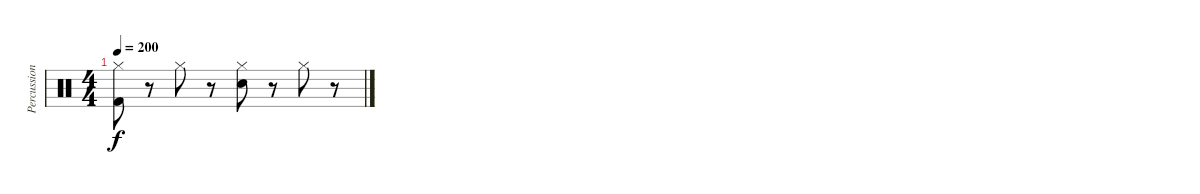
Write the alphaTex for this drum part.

\track ("Percussion" "Percussion") {instrument percussion}
\staff {score}
\articulation defaults
\ts (4 4)
\tempo 200
\clef neutral
\ks c
("Hi-Hat (closed)" "Kick (hit) 2").8{dy f} r.8 "Hi-Hat (closed)".8 r.8 ("Hi-Hat (closed)" "Snare (hit) 2").8 r.8 "Hi-Hat (closed)".8 r.8
